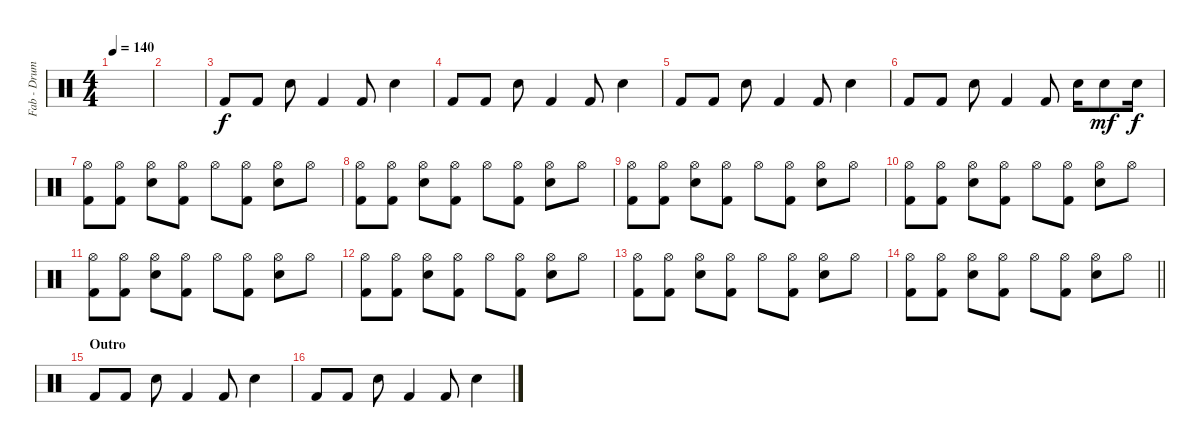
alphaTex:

\track ("Fab - Drums MIDI" "Fab - Drum") {instrument percussion}
\staff {score}
\articulation defaults
\ts (4 4)
\tempo 140
\clef neutral
\ks c
|
|
"Kick (hit) 2".8 "Kick (hit) 2".8 "Snare (hit) 2".8 "Kick (hit) 2".4 "Kick (hit) 2".8 "Snare (hit) 2".4 |
"Kick (hit) 2".8 "Kick (hit) 2".8 "Snare (hit) 2".8 "Kick (hit) 2".4 "Kick (hit) 2".8 "Snare (hit) 2".4 |
"Kick (hit) 2".8 "Kick (hit) 2".8 "Snare (hit) 2".8 "Kick (hit) 2".4 "Kick (hit) 2".8 "Snare (hit) 2".4 |
"Kick (hit) 2".8 "Kick (hit) 2".8 "Snare (hit) 2".8 "Kick (hit) 2".4 "Kick (hit) 2".8 "Snare (hit) 2".16 "Snare (hit) 2".8{dy mf} "Snare (hit) 2".16{dy f} |
("Hi-Hat (open)" "Kick (hit) 2").8 ("Hi-Hat (open)" "Kick (hit) 2").8 ("Hi-Hat (open)" "Snare (hit) 2").8 ("Hi-Hat (open)" "Kick (hit) 2").8 "Hi-Hat (open)".8 ("Hi-Hat (open)" "Kick (hit) 2").8 ("Hi-Hat (open)" "Snare (hit) 2").8 "Hi-Hat (open)".8 |
("Hi-Hat (open)" "Kick (hit) 2").8 ("Hi-Hat (open)" "Kick (hit) 2").8 ("Hi-Hat (open)" "Snare (hit) 2").8 ("Hi-Hat (open)" "Kick (hit) 2").8 "Hi-Hat (open)".8 ("Hi-Hat (open)" "Kick (hit) 2").8 ("Hi-Hat (open)" "Snare (hit) 2").8 "Hi-Hat (open)".8 |
("Hi-Hat (open)" "Kick (hit) 2").8 ("Hi-Hat (open)" "Kick (hit) 2").8 ("Hi-Hat (open)" "Snare (hit) 2").8 ("Hi-Hat (open)" "Kick (hit) 2").8 "Hi-Hat (open)".8 ("Hi-Hat (open)" "Kick (hit) 2").8 ("Hi-Hat (open)" "Snare (hit) 2").8 "Hi-Hat (open)".8 |
("Hi-Hat (open)" "Kick (hit) 2").8 ("Hi-Hat (open)" "Kick (hit) 2").8 ("Hi-Hat (open)" "Snare (hit) 2").8 ("Hi-Hat (open)" "Kick (hit) 2").8 "Hi-Hat (open)".8 ("Hi-Hat (open)" "Kick (hit) 2").8 ("Hi-Hat (open)" "Snare (hit) 2").8 "Hi-Hat (open)".8 |
("Hi-Hat (open)" "Kick (hit) 2").8 ("Hi-Hat (open)" "Kick (hit) 2").8 ("Hi-Hat (open)" "Snare (hit) 2").8 ("Hi-Hat (open)" "Kick (hit) 2").8 "Hi-Hat (open)".8 ("Hi-Hat (open)" "Kick (hit) 2").8 ("Hi-Hat (open)" "Snare (hit) 2").8 "Hi-Hat (open)".8 |
("Hi-Hat (open)" "Kick (hit) 2").8 ("Hi-Hat (open)" "Kick (hit) 2").8 ("Hi-Hat (open)" "Snare (hit) 2").8 ("Hi-Hat (open)" "Kick (hit) 2").8 "Hi-Hat (open)".8 ("Hi-Hat (open)" "Kick (hit) 2").8 ("Hi-Hat (open)" "Snare (hit) 2").8 "Hi-Hat (open)".8 |
("Hi-Hat (open)" "Kick (hit) 2").8 ("Hi-Hat (open)" "Kick (hit) 2").8 ("Hi-Hat (open)" "Snare (hit) 2").8 ("Hi-Hat (open)" "Kick (hit) 2").8 "Hi-Hat (open)".8 ("Hi-Hat (open)" "Kick (hit) 2").8 ("Hi-Hat (open)" "Snare (hit) 2").8 "Hi-Hat (open)".8 |
\barLineRight lightlight
("Hi-Hat (open)" "Kick (hit) 2").8 ("Hi-Hat (open)" "Kick (hit) 2").8 ("Hi-Hat (open)" "Snare (hit) 2").8 ("Hi-Hat (open)" "Kick (hit) 2").8 "Hi-Hat (open)".8 ("Hi-Hat (open)" "Kick (hit) 2").8 ("Hi-Hat (open)" "Snare (hit) 2").8 "Hi-Hat (open)".8 |
\section ("" "Outro")
"Kick (hit) 2".8 "Kick (hit) 2".8 "Snare (hit) 2".8 "Kick (hit) 2".4 "Kick (hit) 2".8 "Snare (hit) 2".4 |
"Kick (hit) 2".8 "Kick (hit) 2".8 "Snare (hit) 2".8 "Kick (hit) 2".4 "Kick (hit) 2".8 "Snare (hit) 2".4
